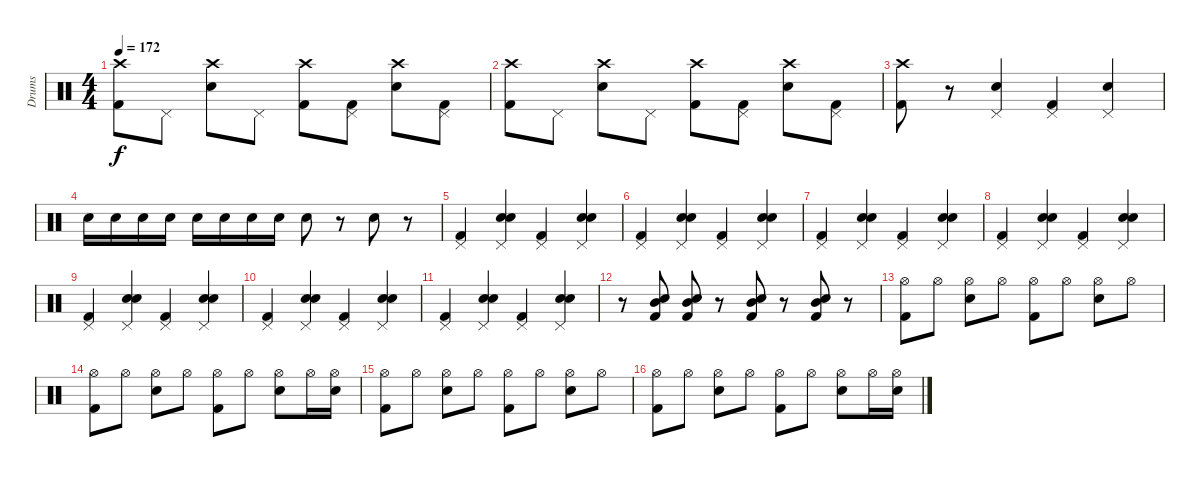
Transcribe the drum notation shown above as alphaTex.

\track ("Drums" "Drums") {instrument percussion}
\staff {score}
\articulation defaults
\ts (4 4)
\tempo 172
\clef neutral
\ks c
("Crash high (hit)" "Kick (hit) 2").8{dy f} "Pedal Hi-Hat (hit)".8 ("Crash high (hit)" "Snare (hit) 2").8 "Pedal Hi-Hat (hit)".8 ("Crash high (hit)" "Kick (hit) 2").8 ("Pedal Hi-Hat (hit)" "Kick (hit) 2").8 ("Crash high (hit)" "Snare (hit) 2").8 ("Pedal Hi-Hat (hit)" "Kick (hit) 2").8 |
("Crash high (hit)" "Kick (hit) 2").8 "Pedal Hi-Hat (hit)".8 ("Crash high (hit)" "Snare (hit) 2").8 "Pedal Hi-Hat (hit)".8 ("Crash high (hit)" "Kick (hit) 2").8 ("Pedal Hi-Hat (hit)" "Kick (hit) 2").8 ("Crash high (hit)" "Snare (hit) 2").8 ("Pedal Hi-Hat (hit)" "Kick (hit) 2").8 |
("Crash high (hit)" "Kick (hit) 2").8 r.8 ("Pedal Hi-Hat (hit)" "Snare (hit) 2").4 ("Pedal Hi-Hat (hit)" "Kick (hit) 2").4 ("Pedal Hi-Hat (hit)" "Snare (hit) 2").4 |
"Snare (hit) 2".16 "Snare (hit) 2".16 "Snare (hit) 2".16 "Snare (hit) 2".16 "Snare (hit) 2".16 "Snare (hit) 2".16 "Snare (hit) 2".16 "Snare (hit) 2".16 "Snare (hit) 2".8 r.8 "Snare (hit) 2".8 r.8 |
("Pedal Hi-Hat (hit)" "Kick (hit) 2").4 ("Pedal Hi-Hat (hit)" "Snare (hit) 2" "Hand Clap (hit)").4 ("Pedal Hi-Hat (hit)" "Kick (hit) 2").4 ("Pedal Hi-Hat (hit)" "Snare (hit) 2" "Hand Clap (hit)").4 |
("Pedal Hi-Hat (hit)" "Kick (hit) 2").4 ("Pedal Hi-Hat (hit)" "Snare (hit) 2" "Hand Clap (hit)").4 ("Pedal Hi-Hat (hit)" "Kick (hit) 2").4 ("Pedal Hi-Hat (hit)" "Snare (hit) 2" "Hand Clap (hit)").4 |
("Pedal Hi-Hat (hit)" "Kick (hit) 2").4 ("Pedal Hi-Hat (hit)" "Snare (hit) 2" "Hand Clap (hit)").4 ("Pedal Hi-Hat (hit)" "Kick (hit) 2").4 ("Pedal Hi-Hat (hit)" "Snare (hit) 2" "Hand Clap (hit)").4 |
("Pedal Hi-Hat (hit)" "Kick (hit) 2").4 ("Pedal Hi-Hat (hit)" "Snare (hit) 2" "Hand Clap (hit)").4 ("Pedal Hi-Hat (hit)" "Kick (hit) 2").4 ("Pedal Hi-Hat (hit)" "Snare (hit) 2" "Hand Clap (hit)").4 |
("Pedal Hi-Hat (hit)" "Kick (hit) 2").4 ("Pedal Hi-Hat (hit)" "Snare (hit) 2" "Hand Clap (hit)").4 ("Pedal Hi-Hat (hit)" "Kick (hit) 2").4 ("Pedal Hi-Hat (hit)" "Snare (hit) 2" "Hand Clap (hit)").4 |
("Pedal Hi-Hat (hit)" "Kick (hit) 2").4 ("Pedal Hi-Hat (hit)" "Snare (hit) 2" "Hand Clap (hit)").4 ("Pedal Hi-Hat (hit)" "Kick (hit) 2").4 ("Pedal Hi-Hat (hit)" "Snare (hit) 2" "Hand Clap (hit)").4 |
("Pedal Hi-Hat (hit)" "Kick (hit) 2").4 ("Pedal Hi-Hat (hit)" "Snare (hit) 2" "Hand Clap (hit)").4 ("Pedal Hi-Hat (hit)" "Kick (hit) 2").4 ("Pedal Hi-Hat (hit)" "Snare (hit) 2" "Hand Clap (hit)").4 |
r.8 ("Mid Tom (hit)" "Snare (hit) 2" "Kick (hit) 2").8 ("Mid Tom (hit)" "Snare (hit) 2" "Kick (hit) 2").8 r.8 ("Mid Tom (hit)" "Snare (hit) 2" "Kick (hit) 2").8 r.8 ("Mid Tom (hit)" "Snare (hit) 2" "Kick (hit) 2").8 r.8 |
("Hi-Hat (open)" "Kick (hit) 2").8{volume 15} "Hi-Hat (open)".8 ("Hi-Hat (open)" "Snare (hit) 2").8 "Hi-Hat (open)".8 ("Hi-Hat (open)" "Kick (hit) 2").8 "Hi-Hat (open)".8 ("Hi-Hat (open)" "Snare (hit) 2").8 "Hi-Hat (open)".8 |
("Hi-Hat (open)" "Kick (hit) 2").8 "Hi-Hat (open)".8 ("Hi-Hat (open)" "Snare (hit) 2").8 "Hi-Hat (open)".8 ("Hi-Hat (open)" "Kick (hit) 2").8 "Hi-Hat (open)".8 ("Hi-Hat (open)" "Snare (hit) 2").8 "Hi-Hat (open)".16 ("Hi-Hat (open)" "Electric Snare (hit)").16 |
("Hi-Hat (open)" "Kick (hit) 2").8 "Hi-Hat (open)".8 ("Hi-Hat (open)" "Snare (hit) 2").8 "Hi-Hat (open)".8 ("Hi-Hat (open)" "Kick (hit) 2").8 "Hi-Hat (open)".8 ("Hi-Hat (open)" "Snare (hit) 2").8 "Hi-Hat (open)".8 |
("Hi-Hat (open)" "Kick (hit) 2").8 "Hi-Hat (open)".8 ("Hi-Hat (open)" "Snare (hit) 2").8 "Hi-Hat (open)".8 ("Hi-Hat (open)" "Kick (hit) 2").8 "Hi-Hat (open)".8 ("Hi-Hat (open)" "Snare (hit) 2").8 "Hi-Hat (open)".16 ("Hi-Hat (open)" "Electric Snare (hit)").16
